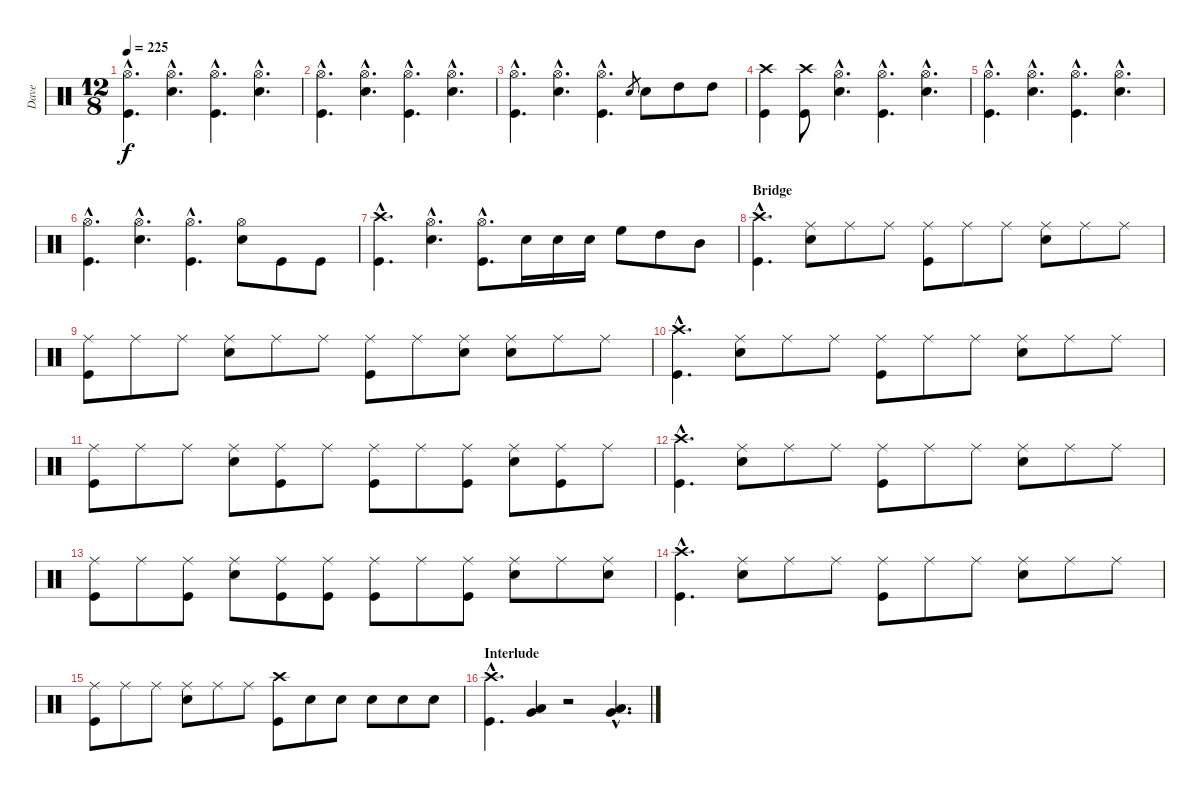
\track ("Dave" "Dave") {instrument percussion}
\staff {score}
\articulation defaults
\ts (12 8)
\tempo 225
\clef neutral
\ks c
("Hi-Hat (open)"{hac} "Kick (hit)"{hac}).4{d dy f} ("Hi-Hat (open)"{hac} "Snare (hit) 2"{hac}).4{d} ("Hi-Hat (open)"{hac} "Kick (hit)"{hac}).4{d} ("Hi-Hat (open)"{hac} "Snare (hit) 2"{hac}).4{d} |
("Hi-Hat (open)"{hac} "Kick (hit)"{hac}).4{d} ("Hi-Hat (open)"{hac} "Snare (hit) 2"{hac}).4{d} ("Hi-Hat (open)"{hac} "Kick (hit)"{hac}).4{d} ("Hi-Hat (open)"{hac} "Snare (hit) 2"{hac}).4{d} |
("Hi-Hat (open)"{hac} "Kick (hit)"{hac}).4{d} ("Hi-Hat (open)"{hac} "Snare (hit) 2"{hac}).4{d} ("Hi-Hat (open)"{hac} "Kick (hit)"{hac}).4{d} "Snare (hit) 2".8{gr} "Snare (hit) 2".8 "High Tom (hit)".8 "High Tom (hit)".8 |
("Crash high (hit)" "Kick (hit)").4 ("Crash high (hit)" "Kick (hit)").8 ("Hi-Hat (open)"{hac} "Snare (hit) 2"{hac}).4{d} ("Hi-Hat (open)"{hac} "Kick (hit)"{hac}).4{d} ("Hi-Hat (open)"{hac} "Snare (hit) 2"{hac}).4{d} |
("Hi-Hat (open)"{hac} "Kick (hit)"{hac}).4{d} ("Hi-Hat (open)"{hac} "Snare (hit) 2"{hac}).4{d} ("Hi-Hat (open)"{hac} "Kick (hit)"{hac}).4{d} ("Hi-Hat (open)"{hac} "Snare (hit) 2"{hac}).4{d} |
("Hi-Hat (open)"{hac} "Kick (hit)"{hac}).4{d} ("Hi-Hat (open)"{hac} "Snare (hit) 2"{hac}).4{d} ("Hi-Hat (open)"{hac} "Kick (hit)"{hac}).4{d} ("Hi-Hat (open)" "Snare (hit) 2").8 "Kick (hit)".8 "Kick (hit)".8 |
("Crash high (hit)"{hac} "Kick (hit)"{hac}).4{d} ("Hi-Hat (open)"{hac} "Snare (hit) 2"{hac}).4{d} ("Hi-Hat (open)"{hac} "Kick (hit)"{hac}).8{d} "Snare (hit) 2".16 "Snare (hit) 2".16 "Snare (hit) 2".16 "High Floor Tom (hit)".8 "High Tom (hit)".8 "Mid Tom (hit)".8 |
\section ("" "Bridge")
("Crash high (hit)"{hac} "Kick (hit)"{hac}).4{d} ("Ride (middle)" "Snare (hit) 2").8 "Ride (middle)".8 "Ride (middle)".8 ("Ride (middle)" "Kick (hit)").8 "Ride (middle)".8 "Ride (middle)".8 ("Ride (middle)" "Snare (hit) 2").8 "Ride (middle)".8 "Ride (middle)".8 |
("Ride (middle)" "Kick (hit)").8 "Ride (middle)".8 "Ride (middle)".8 ("Ride (middle)" "Snare (hit) 2").8 "Ride (middle)".8 "Ride (middle)".8 ("Ride (middle)" "Kick (hit)").8 "Ride (middle)".8 ("Ride (middle)" "Snare (hit) 2").8 ("Ride (middle)" "Snare (hit) 2").8 "Ride (middle)".8 "Ride (middle)".8 |
("Crash high (hit)"{hac} "Kick (hit)"{hac}).4{d} ("Ride (middle)" "Snare (hit) 2").8 "Ride (middle)".8 "Ride (middle)".8 ("Ride (middle)" "Kick (hit)").8 "Ride (middle)".8 "Ride (middle)".8 ("Ride (middle)" "Snare (hit) 2").8 "Ride (middle)".8 "Ride (middle)".8 |
("Ride (middle)" "Kick (hit)").8 "Ride (middle)".8 "Ride (middle)".8 ("Ride (middle)" "Snare (hit) 2").8 ("Ride (middle)" "Kick (hit)").8 "Ride (middle)".8 ("Ride (middle)" "Kick (hit)").8 "Ride (middle)".8 ("Ride (middle)" "Kick (hit)").8 ("Ride (middle)" "Snare (hit) 2").8 ("Ride (middle)" "Kick (hit)").8 "Ride (middle)".8 |
("Crash high (hit)"{hac} "Kick (hit)"{hac}).4{d} ("Ride (middle)" "Snare (hit) 2").8 "Ride (middle)".8 "Ride (middle)".8 ("Ride (middle)" "Kick (hit)").8 "Ride (middle)".8 "Ride (middle)".8 ("Ride (middle)" "Snare (hit) 2").8 "Ride (middle)".8 "Ride (middle)".8 |
("Ride (middle)" "Kick (hit)").8 "Ride (middle)".8 ("Ride (middle)" "Kick (hit)").8 ("Ride (middle)" "Snare (hit) 2").8 ("Ride (middle)" "Kick (hit)").8 ("Ride (middle)" "Kick (hit)").8 ("Ride (middle)" "Kick (hit)").8 "Ride (middle)".8 ("Ride (middle)" "Kick (hit)").8 ("Ride (middle)" "Snare (hit) 2").8 "Ride (middle)".8 ("Ride (middle)" "Snare (hit) 2").8 |
("Crash high (hit)"{hac} "Kick (hit)"{hac}).4{d} ("Ride (middle)" "Snare (hit) 2").8 "Ride (middle)".8 "Ride (middle)".8 ("Ride (middle)" "Kick (hit)").8 "Ride (middle)".8 "Ride (middle)".8 ("Ride (middle)" "Snare (hit) 2").8 "Ride (middle)".8 "Ride (middle)".8 |
("Ride (middle)" "Kick (hit)").8 "Ride (middle)".8 "Ride (middle)".8 ("Ride (middle)" "Snare (hit) 2").8 "Ride (middle)".8 "Ride (middle)".8 ("Crash high (hit)" "Kick (hit)").8 "Snare (hit) 2".8 "Snare (hit) 2".8 "Snare (hit) 2".8 "Snare (hit) 2".8 "Snare (hit) 2".8 |
\section ("" "Interlude")
("Crash high (hit)"{hac} "Kick (hit)"{hac}).4{d} ("Very Low Tom (hit)" "Low Floor Tom (hit)").4 r.2 ("Very Low Tom (hit)"{hac} "Low Floor Tom (hit)"{hac}).4{d}
